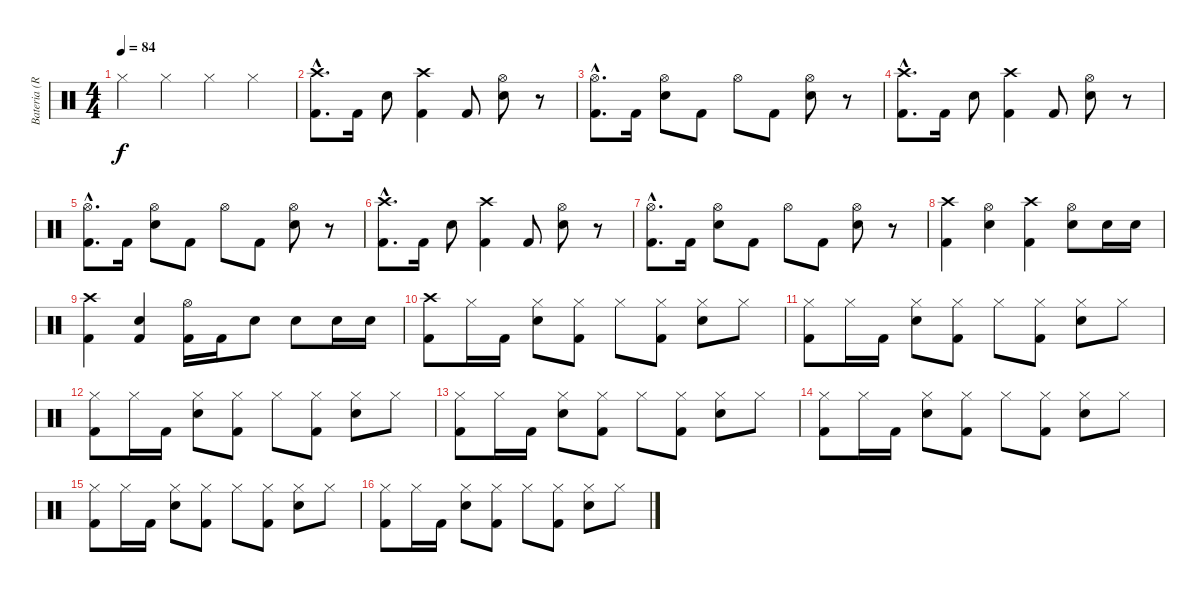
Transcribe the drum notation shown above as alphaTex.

\track ("Bateria (Robert Sweet)" "Bateria (R") {instrument percussion}
\staff {score}
\articulation defaults
\ts (4 4)
\tempo 84
\clef neutral
\ks c "Hi-Hat (closed)".4{dy f} "Hi-Hat (closed)".4 "Hi-Hat (closed)".4 "Hi-Hat (closed)".4
|
("Crash high (hit)"{hac} "Kick (hit) 2"{hac}).8{d} "Kick (hit) 2".16 "Electric Snare (hit)".8 ("Crash high (hit)" "Kick (hit) 2").4 "Kick (hit) 2".8 ("Electric Snare (hit)" "Hi-Hat (open)").8 r.8 |
("Hi-Hat (open)"{hac} "Kick (hit) 2"{hac}).8{d} "Kick (hit) 2".16 ("Electric Snare (hit)" "Hi-Hat (open)").8 "Kick (hit) 2".8 "Hi-Hat (open)".8 "Kick (hit) 2".8 ("Electric Snare (hit)" "Hi-Hat (open)").8 r.8 |
("Crash high (hit)"{hac} "Kick (hit) 2"{hac}).8{d} "Kick (hit) 2".16 "Electric Snare (hit)".8 ("Crash high (hit)" "Kick (hit) 2").4 "Kick (hit) 2".8 ("Electric Snare (hit)" "Hi-Hat (open)").8 r.8 |
("Hi-Hat (open)"{hac} "Kick (hit) 2"{hac}).8{d} "Kick (hit) 2".16 ("Electric Snare (hit)" "Hi-Hat (open)").8 "Kick (hit) 2".8 "Hi-Hat (open)".8 "Kick (hit) 2".8 ("Electric Snare (hit)" "Hi-Hat (open)").8 r.8 |
("Crash high (hit)"{hac} "Kick (hit) 2"{hac}).8{d} "Kick (hit) 2".16 "Electric Snare (hit)".8 ("Crash high (hit)" "Kick (hit) 2").4 "Kick (hit) 2".8 ("Electric Snare (hit)" "Hi-Hat (open)").8 r.8 |
("Hi-Hat (open)"{hac} "Kick (hit) 2"{hac}).8{d} "Kick (hit) 2".16 ("Electric Snare (hit)" "Hi-Hat (open)").8 "Kick (hit) 2".8 "Hi-Hat (open)".8 "Kick (hit) 2".8 ("Electric Snare (hit)" "Hi-Hat (open)").8 r.8 |
("Crash high (hit)" "Kick (hit) 2").4 ("Electric Snare (hit)" "Hi-Hat (open)").4 ("Crash high (hit)" "Kick (hit) 2").4 ("Electric Snare (hit)" "Hi-Hat (open)").8 "Electric Snare (hit)".16 "Electric Snare (hit)".16 |
("Crash high (hit)" "Kick (hit) 2").4 ("Electric Snare (hit)" "Kick (hit) 2").4 ("Hi-Hat (open)" "Kick (hit) 2").16 "Kick (hit) 2".16 "Electric Snare (hit)".8 "Electric Snare (hit)".8 "Electric Snare (hit)".16 "Electric Snare (hit)".16 |
("Crash high (hit)" "Kick (hit) 2").8 "Hi-Hat (closed)".16 "Kick (hit) 2".16 ("Electric Snare (hit)" "Hi-Hat (closed)").8 ("Hi-Hat (closed)" "Kick (hit) 2").8 "Hi-Hat (closed)".8 ("Hi-Hat (closed)" "Kick (hit) 2").8 ("Electric Snare (hit)" "Hi-Hat (closed)").8 "Hi-Hat (closed)".8 |
("Hi-Hat (closed)" "Kick (hit) 2").8 "Hi-Hat (closed)".16 "Kick (hit) 2".16 ("Electric Snare (hit)" "Hi-Hat (closed)").8 ("Hi-Hat (closed)" "Kick (hit) 2").8 "Hi-Hat (closed)".8 ("Hi-Hat (closed)" "Kick (hit) 2").8 ("Electric Snare (hit)" "Hi-Hat (closed)").8 "Hi-Hat (closed)".8 |
("Hi-Hat (closed)" "Kick (hit) 2").8 "Hi-Hat (closed)".16 "Kick (hit) 2".16 ("Electric Snare (hit)" "Hi-Hat (closed)").8 ("Hi-Hat (closed)" "Kick (hit) 2").8 "Hi-Hat (closed)".8 ("Hi-Hat (closed)" "Kick (hit) 2").8 ("Electric Snare (hit)" "Hi-Hat (closed)").8 "Hi-Hat (closed)".8 |
("Hi-Hat (closed)" "Kick (hit) 2").8 "Hi-Hat (closed)".16 "Kick (hit) 2".16 ("Electric Snare (hit)" "Hi-Hat (closed)").8 ("Hi-Hat (closed)" "Kick (hit) 2").8 "Hi-Hat (closed)".8 ("Hi-Hat (closed)" "Kick (hit) 2").8 ("Electric Snare (hit)" "Hi-Hat (closed)").8 "Hi-Hat (closed)".8 |
("Hi-Hat (closed)" "Kick (hit) 2").8 "Hi-Hat (closed)".16 "Kick (hit) 2".16 ("Electric Snare (hit)" "Hi-Hat (closed)").8 ("Hi-Hat (closed)" "Kick (hit) 2").8 "Hi-Hat (closed)".8 ("Hi-Hat (closed)" "Kick (hit) 2").8 ("Electric Snare (hit)" "Hi-Hat (closed)").8 "Hi-Hat (closed)".8 |
("Hi-Hat (closed)" "Kick (hit) 2").8 "Hi-Hat (closed)".16 "Kick (hit) 2".16 ("Electric Snare (hit)" "Hi-Hat (closed)").8 ("Hi-Hat (closed)" "Kick (hit) 2").8 "Hi-Hat (closed)".8 ("Hi-Hat (closed)" "Kick (hit) 2").8 ("Electric Snare (hit)" "Hi-Hat (closed)").8 "Hi-Hat (closed)".8 |
("Hi-Hat (closed)" "Kick (hit) 2").8 "Hi-Hat (closed)".16 "Kick (hit) 2".16 ("Electric Snare (hit)" "Hi-Hat (closed)").8 ("Hi-Hat (closed)" "Kick (hit) 2").8 "Hi-Hat (closed)".8 ("Hi-Hat (closed)" "Kick (hit) 2").8 ("Electric Snare (hit)" "Hi-Hat (closed)").8 "Hi-Hat (closed)".8
